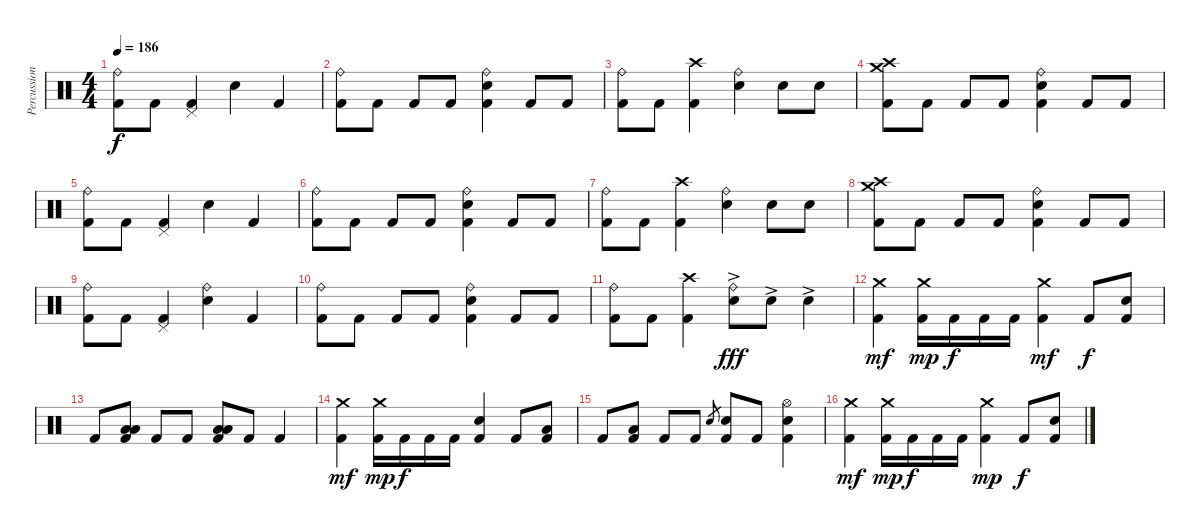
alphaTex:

\track ("Percussion" "Percussion") {instrument percussion}
\staff {score}
\articulation defaults
\ts (4 4)
\tempo 186
\clef neutral
\ks c
("Ride (bell)" "Kick (hit) 2").8{dy f} "Kick (hit) 2".8 ("Pedal Hi-Hat (hit)" "Kick (hit) 2").4 "Electric Snare (hit)".4 "Kick (hit) 2".4 |
("Ride (bell)" "Kick (hit) 2").8 "Kick (hit) 2".8 "Kick (hit) 2".8 "Kick (hit) 2".8 ("Ride (bell)" "Electric Snare (hit)" "Kick (hit) 2").4 "Kick (hit) 2".8 "Kick (hit) 2".8 |
("Ride (bell)" "Kick (hit) 2").8 "Kick (hit) 2".8 ("Crash high (hit)" "Kick (hit) 2").4 ("Ride (bell)" "Electric Snare (hit)").4 "Electric Snare (hit)".8 "Electric Snare (hit)".8 |
("Crash high (hit)" "Crash medium (hit)" "Kick (hit) 2").8 "Kick (hit) 2".8 "Kick (hit) 2".8 "Kick (hit) 2".8 ("Ride (bell)" "Electric Snare (hit)" "Kick (hit) 2").4 "Kick (hit) 2".8 "Kick (hit) 2".8 |
("Ride (bell)" "Kick (hit) 2").8 "Kick (hit) 2".8 ("Pedal Hi-Hat (hit)" "Kick (hit) 2").4 "Electric Snare (hit)".4 "Kick (hit) 2".4 |
("Ride (bell)" "Kick (hit) 2").8 "Kick (hit) 2".8 "Kick (hit) 2".8 "Kick (hit) 2".8 ("Ride (bell)" "Electric Snare (hit)" "Kick (hit) 2").4 "Kick (hit) 2".8 "Kick (hit) 2".8 |
("Ride (bell)" "Kick (hit) 2").8 "Kick (hit) 2".8 ("Crash high (hit)" "Kick (hit) 2").4 ("Ride (bell)" "Electric Snare (hit)").4 "Electric Snare (hit)".8 "Electric Snare (hit)".8 |
("Crash high (hit)" "Crash medium (hit)" "Kick (hit) 2").8 "Kick (hit) 2".8 "Kick (hit) 2".8 "Kick (hit) 2".8 ("Ride (bell)" "Electric Snare (hit)" "Kick (hit) 2").4 "Kick (hit) 2".8 "Kick (hit) 2".8 |
("Ride (bell)" "Kick (hit) 2").8 "Kick (hit) 2".8 ("Pedal Hi-Hat (hit)" "Kick (hit) 2").4 ("Ride (bell)" "Electric Snare (hit)").4 "Kick (hit) 2".4 |
("Ride (bell)" "Kick (hit) 2").8 "Kick (hit) 2".8 "Kick (hit) 2".8 "Kick (hit) 2".8 ("Ride (bell)" "Electric Snare (hit)" "Kick (hit) 2").4 "Kick (hit) 2".8 "Kick (hit) 2".8 |
("Ride (bell)" "Kick (hit) 2").8 "Kick (hit) 2".8 ("Crash high (hit)" "Kick (hit) 2").4 ("Ride (bell)" "Electric Snare (hit)"{ac}).8{dy fff} "Electric Snare (hit)"{ac}.8 "Electric Snare (hit)"{ac}.4 |
("Crash medium (hit)" "Kick (hit) 2").4{dy mf} ("Crash medium (hit)" "Kick (hit) 2").16{dy mp} "Kick (hit) 2".16{dy f} "Kick (hit) 2".16 "Kick (hit) 2".16 ("Crash medium (hit)" "Kick (hit) 2").4{dy mf} "Kick (hit) 2".8{dy f} ("Electric Snare (hit)" "Kick (hit) 2").8 |
"Kick (hit) 2".8 ("Low Floor Tom (hit)" "Low Floor Tom (hit)" "Kick (hit) 2").8 "Kick (hit) 2".8 "Kick (hit) 2".8 ("Low Tom (hit)" "Low Tom (hit)" "Kick (hit) 2").8 "Kick (hit) 2".8 "Kick (hit) 2".4 |
("Crash medium (hit)" "Kick (hit) 2").4{dy mf} ("Crash medium (hit)" "Kick (hit) 2").16{dy mp} "Kick (hit) 2".16{dy f} "Kick (hit) 2".16 "Kick (hit) 2".16 ("Electric Snare (hit)" "Kick (hit) 2").4 "Kick (hit) 2".8 ("Low Floor Tom (hit)" "Kick (hit) 2").8 |
"Kick (hit) 2".8 ("Low Tom (hit)" "Kick (hit) 2").8 "Kick (hit) 2".8 "Kick (hit) 2".8 "Electric Snare (hit)".8{gr} ("Electric Snare (hit)" "Kick (hit) 2").8 "Kick (hit) 2".8 ("Hi-Hat (open)" "Electric Snare (hit)" "Kick (hit) 2").4 |
("Crash medium (hit)" "Kick (hit) 2").4{dy mf} ("Crash medium (hit)" "Kick (hit) 2").16{dy mp} "Kick (hit) 2".16{dy f} "Kick (hit) 2".16 "Kick (hit) 2".16 ("Crash medium (hit)" "Kick (hit) 2").4{dy mp} "Kick (hit) 2".8{dy f} ("Electric Snare (hit)" "Kick (hit) 2").8
